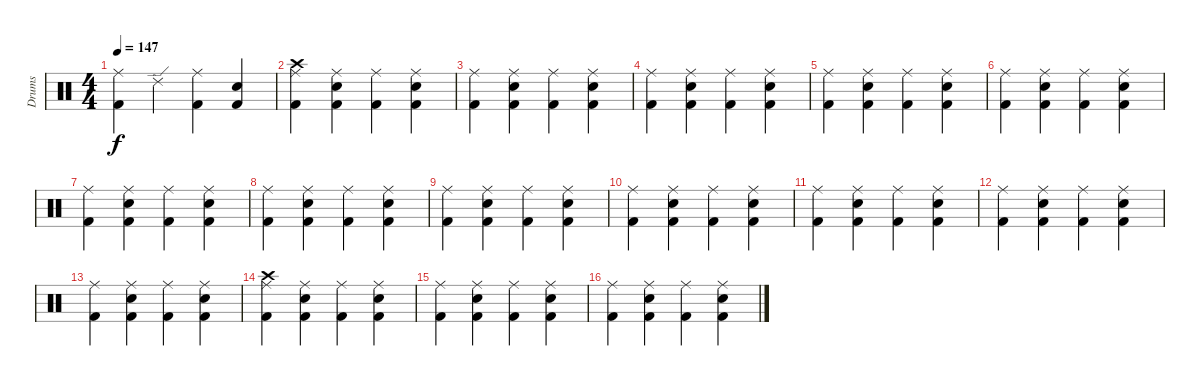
\track ("Drums" "Drums") {instrument percussion}
\staff {score}
\articulation defaults
\ts (4 4)
\tempo 147
\clef neutral
\ks c
("Ride (middle)" "Kick (hit) 2").4{dy f} "Ride (edge) 2".4 ("Ride (middle)" "Kick (hit) 2").4 ("Electric Snare (hit)" "Kick (hit) 2").4 |
("Crash high (hit)" "Ride (middle)" "Kick (hit) 2").4 ("Ride (middle)" "Electric Snare (hit)" "Kick (hit) 2").4 ("Ride (middle)" "Kick (hit) 2").4 ("Ride (middle)" "Electric Snare (hit)" "Kick (hit) 2").4 |
("Ride (middle)" "Kick (hit) 2").4 ("Ride (middle)" "Electric Snare (hit)" "Kick (hit) 2").4 ("Ride (middle)" "Kick (hit) 2").4 ("Ride (middle)" "Electric Snare (hit)" "Kick (hit) 2").4 |
("Ride (middle)" "Kick (hit) 2").4 ("Ride (middle)" "Electric Snare (hit)" "Kick (hit) 2").4 ("Ride (middle)" "Kick (hit) 2").4 ("Ride (middle)" "Electric Snare (hit)" "Kick (hit) 2").4 |
("Ride (middle)" "Kick (hit) 2").4 ("Ride (middle)" "Electric Snare (hit)" "Kick (hit) 2").4 ("Ride (middle)" "Kick (hit) 2").4 ("Ride (middle)" "Electric Snare (hit)" "Kick (hit) 2").4 |
("Ride (middle)" "Kick (hit) 2").4 ("Ride (middle)" "Electric Snare (hit)" "Kick (hit) 2").4 ("Ride (middle)" "Kick (hit) 2").4 ("Ride (middle)" "Electric Snare (hit)" "Kick (hit) 2").4 |
("Ride (middle)" "Kick (hit) 2").4 ("Ride (middle)" "Electric Snare (hit)" "Kick (hit) 2").4 ("Ride (middle)" "Kick (hit) 2").4 ("Ride (middle)" "Electric Snare (hit)" "Kick (hit) 2").4 |
("Ride (middle)" "Kick (hit) 2").4 ("Ride (middle)" "Electric Snare (hit)" "Kick (hit) 2").4 ("Ride (middle)" "Kick (hit) 2").4 ("Ride (middle)" "Electric Snare (hit)" "Kick (hit) 2").4 |
("Ride (middle)" "Kick (hit) 2").4 ("Ride (middle)" "Electric Snare (hit)" "Kick (hit) 2").4 ("Ride (middle)" "Kick (hit) 2").4 ("Ride (middle)" "Electric Snare (hit)" "Kick (hit) 2").4 |
("Ride (middle)" "Kick (hit) 2").4 ("Ride (middle)" "Electric Snare (hit)" "Kick (hit) 2").4 ("Ride (middle)" "Kick (hit) 2").4 ("Ride (middle)" "Electric Snare (hit)" "Kick (hit) 2").4 |
("Ride (middle)" "Kick (hit) 2").4 ("Ride (middle)" "Electric Snare (hit)" "Kick (hit) 2").4 ("Ride (middle)" "Kick (hit) 2").4 ("Ride (middle)" "Electric Snare (hit)" "Kick (hit) 2").4 |
("Ride (middle)" "Kick (hit) 2").4 ("Ride (middle)" "Electric Snare (hit)" "Kick (hit) 2").4 ("Ride (middle)" "Kick (hit) 2").4 ("Ride (middle)" "Electric Snare (hit)" "Kick (hit) 2").4 |
("Ride (middle)" "Kick (hit) 2").4 ("Ride (middle)" "Electric Snare (hit)" "Kick (hit) 2").4 ("Ride (middle)" "Kick (hit) 2").4 ("Ride (middle)" "Electric Snare (hit)" "Kick (hit) 2").4 |
("Crash high (hit)" "Ride (middle)" "Kick (hit) 2").4 ("Ride (middle)" "Electric Snare (hit)" "Kick (hit) 2").4 ("Ride (middle)" "Kick (hit) 2").4 ("Ride (middle)" "Electric Snare (hit)" "Kick (hit) 2").4 |
("Ride (middle)" "Kick (hit) 2").4 ("Ride (middle)" "Electric Snare (hit)" "Kick (hit) 2").4 ("Ride (middle)" "Kick (hit) 2").4 ("Ride (middle)" "Electric Snare (hit)" "Kick (hit) 2").4 |
("Ride (middle)" "Kick (hit) 2").4 ("Ride (middle)" "Electric Snare (hit)" "Kick (hit) 2").4 ("Ride (middle)" "Kick (hit) 2").4 ("Ride (middle)" "Electric Snare (hit)" "Kick (hit) 2").4
